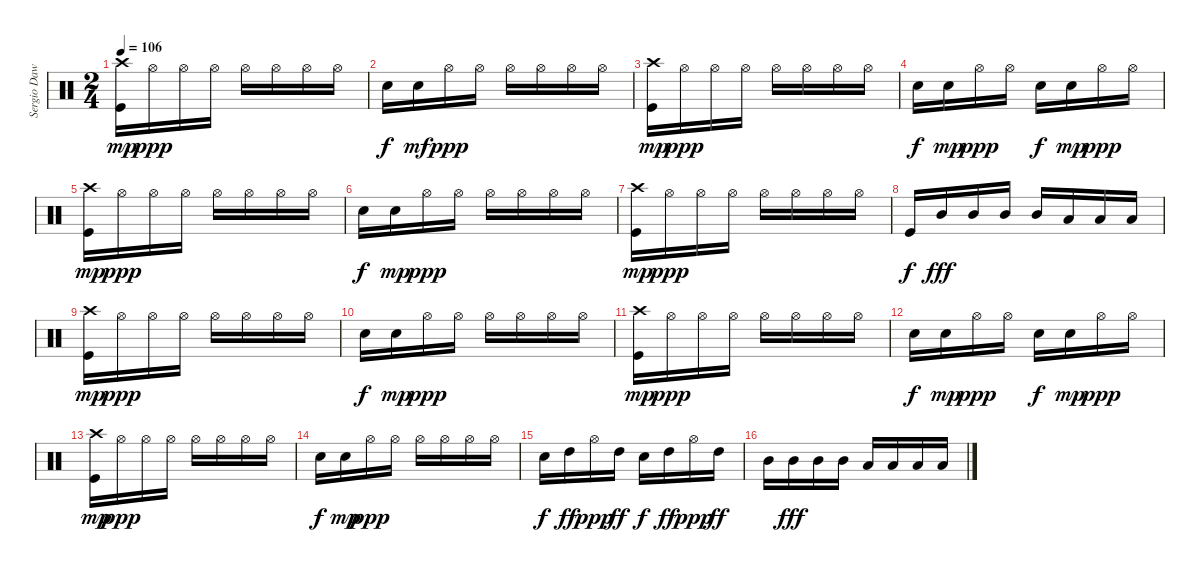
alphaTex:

\track ("Sergio Dawi" "Sergio Daw") {instrument percussion}
\staff {score}
\articulation defaults
\ts (2 4)
\tempo 106
\clef neutral
\ks c
("Kick (hit)" "Crash high (hit)").16{dy mp} "Hi-Hat (open)".16{dy ppp} "Hi-Hat (open)".16 "Hi-Hat (open)".16 "Hi-Hat (open)".16 "Hi-Hat (open)".16 "Hi-Hat (open)".16 "Hi-Hat (open)".16 |
"Electric Snare (hit)".16{dy f} "Electric Snare (hit)".16{dy mf} "Hi-Hat (open)".16{dy ppp} "Hi-Hat (open)".16 "Hi-Hat (open)".16 "Hi-Hat (open)".16 "Hi-Hat (open)".16 "Hi-Hat (open)".16 |
("Kick (hit)" "Crash high (hit)").16{dy mp} "Hi-Hat (open)".16{dy ppp} "Hi-Hat (open)".16 "Hi-Hat (open)".16 "Hi-Hat (open)".16 "Hi-Hat (open)".16 "Hi-Hat (open)".16 "Hi-Hat (open)".16 |
"Electric Snare (hit)".16{dy f} "Electric Snare (hit)".16{dy mp} "Hi-Hat (open)".16{dy ppp} "Hi-Hat (open)".16 "Electric Snare (hit)".16{dy f} "Electric Snare (hit)".16{dy mp} "Hi-Hat (open)".16{dy ppp} "Hi-Hat (open)".16 |
("Kick (hit)" "Crash high (hit)").16{dy mp} "Hi-Hat (open)".16{dy ppp} "Hi-Hat (open)".16 "Hi-Hat (open)".16 "Hi-Hat (open)".16 "Hi-Hat (open)".16 "Hi-Hat (open)".16 "Hi-Hat (open)".16 |
"Electric Snare (hit)".16{dy f} "Electric Snare (hit)".16{dy mp} "Hi-Hat (open)".16{dy ppp} "Hi-Hat (open)".16 "Hi-Hat (open)".16 "Hi-Hat (open)".16 "Hi-Hat (open)".16 "Hi-Hat (open)".16 |
("Kick (hit)" "Crash high (hit)").16{dy mp} "Hi-Hat (open)".16{dy ppp} "Hi-Hat (open)".16 "Hi-Hat (open)".16 "Hi-Hat (open)".16 "Hi-Hat (open)".16 "Hi-Hat (open)".16 "Hi-Hat (open)".16 |
"Kick (hit)".16{dy f} "Mid Tom (hit)".16{dy fff} "Mid Tom (hit)".16 "Mid Tom (hit)".16 "Mid Tom (hit)".16 "Low Tom (hit)".16 "Low Tom (hit)".16 "Low Tom (hit)".16 |
("Kick (hit)" "Crash high (hit)").16{dy mp} "Hi-Hat (open)".16{dy ppp} "Hi-Hat (open)".16 "Hi-Hat (open)".16 "Hi-Hat (open)".16 "Hi-Hat (open)".16 "Hi-Hat (open)".16 "Hi-Hat (open)".16 |
"Electric Snare (hit)".16{dy f} "Electric Snare (hit)".16{dy mp} "Hi-Hat (open)".16{dy ppp} "Hi-Hat (open)".16 "Hi-Hat (open)".16 "Hi-Hat (open)".16 "Hi-Hat (open)".16 "Hi-Hat (open)".16 |
("Kick (hit)" "Crash high (hit)").16{dy mp} "Hi-Hat (open)".16{dy ppp} "Hi-Hat (open)".16 "Hi-Hat (open)".16 "Hi-Hat (open)".16 "Hi-Hat (open)".16 "Hi-Hat (open)".16 "Hi-Hat (open)".16 |
"Electric Snare (hit)".16{dy f} "Electric Snare (hit)".16{dy mp} "Hi-Hat (open)".16{dy ppp} "Hi-Hat (open)".16 "Electric Snare (hit)".16{dy f} "Electric Snare (hit)".16{dy mp} "Hi-Hat (open)".16{dy ppp} "Hi-Hat (open)".16 |
("Kick (hit)" "Crash high (hit)").16{dy mp} "Hi-Hat (open)".16{dy ppp} "Hi-Hat (open)".16 "Hi-Hat (open)".16 "Hi-Hat (open)".16 "Hi-Hat (open)".16 "Hi-Hat (open)".16 "Hi-Hat (open)".16 |
"Electric Snare (hit)".16{dy f} "Electric Snare (hit)".16{dy mp} "Hi-Hat (open)".16{dy ppp} "Hi-Hat (open)".16 "Hi-Hat (open)".16 "Hi-Hat (open)".16 "Hi-Hat (open)".16 "Hi-Hat (open)".16 |
"Electric Snare (hit)".16{dy f} "High Tom (hit)".16{dy ff} "Hi-Hat (open)".16{dy ppp} "High Tom (hit)".16{dy ff} "Electric Snare (hit)".16{dy f} "High Tom (hit)".16{dy ff} "Hi-Hat (open)".16{dy ppp} "High Tom (hit)".16{dy ff} |
"Mid Tom (hit)".16 "Mid Tom (hit)".16{dy fff} "Mid Tom (hit)".16 "Mid Tom (hit)".16 "Low Tom (hit)".16 "Low Tom (hit)".16 "Low Tom (hit)".16 "Low Tom (hit)".16
